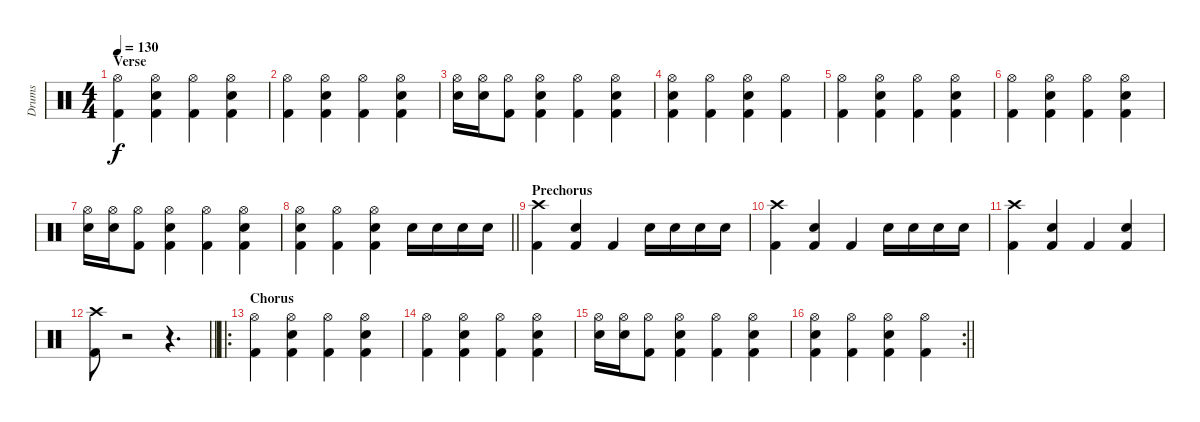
\track ("Drums" "Drums") {instrument percussion}
\staff {score}
\articulation defaults
\ts (4 4)
\section ("" "Verse")
\tempo 130
\clef neutral
\ks c
("Hi-Hat (open)" "Kick (hit) 2").4{dy f} ("Hi-Hat (open)" "Snare (hit) 2" "Kick (hit) 2").4 ("Hi-Hat (open)" "Kick (hit) 2").4 ("Hi-Hat (open)" "Snare (hit) 2" "Kick (hit) 2").4 |
("Hi-Hat (open)" "Kick (hit) 2").4 ("Hi-Hat (open)" "Snare (hit) 2" "Kick (hit) 2").4 ("Hi-Hat (open)" "Kick (hit) 2").4 ("Hi-Hat (open)" "Snare (hit) 2" "Kick (hit) 2").4 |
("Hi-Hat (open)" "Snare (hit) 2").16 ("Hi-Hat (open)" "Snare (hit) 2").16 ("Hi-Hat (open)" "Kick (hit) 2").8 ("Hi-Hat (open)" "Snare (hit) 2" "Kick (hit) 2").4 ("Hi-Hat (open)" "Kick (hit) 2").4 ("Hi-Hat (open)" "Snare (hit) 2" "Kick (hit) 2").4 |
("Hi-Hat (open)" "Snare (hit) 2" "Kick (hit) 2").4 ("Hi-Hat (open)" "Kick (hit) 2").4 ("Hi-Hat (open)" "Snare (hit) 2" "Kick (hit) 2").4 ("Hi-Hat (open)" "Kick (hit) 2").4 |
("Hi-Hat (open)" "Kick (hit) 2").4 ("Hi-Hat (open)" "Snare (hit) 2" "Kick (hit) 2").4 ("Hi-Hat (open)" "Kick (hit) 2").4 ("Hi-Hat (open)" "Snare (hit) 2" "Kick (hit) 2").4 |
("Hi-Hat (open)" "Kick (hit) 2").4 ("Hi-Hat (open)" "Snare (hit) 2" "Kick (hit) 2").4 ("Hi-Hat (open)" "Kick (hit) 2").4 ("Hi-Hat (open)" "Snare (hit) 2" "Kick (hit) 2").4 |
("Hi-Hat (open)" "Snare (hit) 2").16 ("Hi-Hat (open)" "Snare (hit) 2").16 ("Hi-Hat (open)" "Kick (hit) 2").8 ("Hi-Hat (open)" "Snare (hit) 2" "Kick (hit) 2").4 ("Hi-Hat (open)" "Kick (hit) 2").4 ("Hi-Hat (open)" "Snare (hit) 2" "Kick (hit) 2").4 |
\barLineRight lightlight
("Hi-Hat (open)" "Snare (hit) 2" "Kick (hit) 2").4 ("Hi-Hat (open)" "Kick (hit) 2").4 ("Hi-Hat (open)" "Snare (hit) 2" "Kick (hit) 2").4 "Snare (hit) 2".16 "Snare (hit) 2".16 "Snare (hit) 2".16 "Snare (hit) 2".16 |
\section ("" "Prechorus")
("Crash high (hit)" "Kick (hit) 2").4 ("Snare (hit) 2" "Kick (hit) 2").4 "Kick (hit) 2".4 "Snare (hit) 2".16 "Snare (hit) 2".16 "Snare (hit) 2".16 "Snare (hit) 2".16 |
("Crash high (hit)" "Kick (hit) 2").4 ("Snare (hit) 2" "Kick (hit) 2").4 "Kick (hit) 2".4 "Snare (hit) 2".16 "Snare (hit) 2".16 "Snare (hit) 2".16 "Snare (hit) 2".16 |
("Crash high (hit)" "Kick (hit) 2").4 ("Snare (hit) 2" "Kick (hit) 2").4 "Kick (hit) 2".4 ("Snare (hit) 2" "Kick (hit) 2").4 |
\barLineRight lightlight
("Crash high (hit)" "Kick (hit) 2").8 r.2 r.4{d} |
\ro
\section ("" "Chorus")
("Hi-Hat (open)" "Kick (hit) 2").4 ("Hi-Hat (open)" "Snare (hit) 2" "Kick (hit) 2").4 ("Hi-Hat (open)" "Kick (hit) 2").4 ("Hi-Hat (open)" "Snare (hit) 2" "Kick (hit) 2").4 |
("Hi-Hat (open)" "Kick (hit) 2").4 ("Hi-Hat (open)" "Snare (hit) 2" "Kick (hit) 2").4 ("Hi-Hat (open)" "Kick (hit) 2").4 ("Hi-Hat (open)" "Snare (hit) 2" "Kick (hit) 2").4 |
("Hi-Hat (open)" "Snare (hit) 2").16 ("Hi-Hat (open)" "Snare (hit) 2").16 ("Hi-Hat (open)" "Kick (hit) 2").8 ("Hi-Hat (open)" "Snare (hit) 2" "Kick (hit) 2").4 ("Hi-Hat (open)" "Kick (hit) 2").4 ("Hi-Hat (open)" "Snare (hit) 2" "Kick (hit) 2").4 |
\rc 2
\barLineRight lightlight
("Hi-Hat (open)" "Snare (hit) 2" "Kick (hit) 2").4 ("Hi-Hat (open)" "Kick (hit) 2").4 ("Hi-Hat (open)" "Snare (hit) 2" "Kick (hit) 2").4 ("Hi-Hat (open)" "Kick (hit) 2").4
